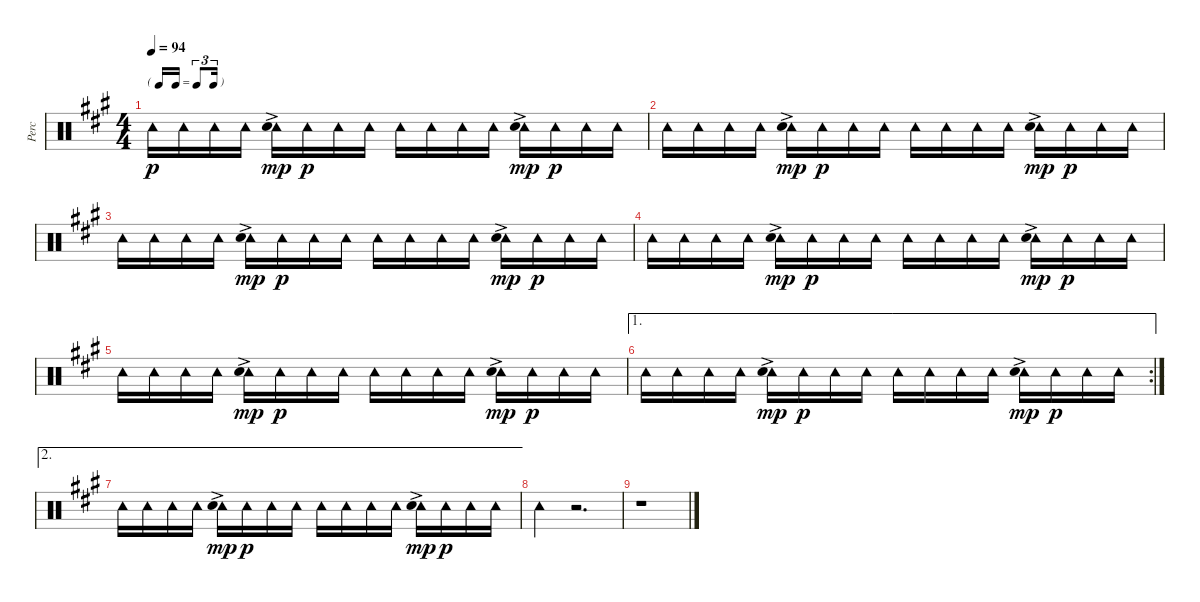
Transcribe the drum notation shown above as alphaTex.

\track ("Perc" "Perc") {instrument percussion}
\staff {score}
\articulation defaults
\ts (4 4)
\tf triplet16th
\tempo 94
\clef neutral
\ks a "Tambourine (hit)".16{dy p} "Tambourine (hit)".16 "Tambourine (hit)".16 "Tambourine (hit)".16
("Tambourine (hit)"{ac} "Hand Clap (hit)").16{dy mp} "Tambourine (hit)".16{dy p} "Tambourine (hit)".16 "Tambourine (hit)".16 "Tambourine (hit)".16 "Tambourine (hit)".16 "Tambourine (hit)".16 "Tambourine (hit)".16 ("Tambourine (hit)"{ac} "Hand Clap (hit)").16{dy mp} "Tambourine (hit)".16{dy p} "Tambourine (hit)".16 "Tambourine (hit)".16 |
"Tambourine (hit)".16 "Tambourine (hit)".16 "Tambourine (hit)".16 "Tambourine (hit)".16 ("Tambourine (hit)"{ac} "Hand Clap (hit)").16{dy mp} "Tambourine (hit)".16{dy p} "Tambourine (hit)".16 "Tambourine (hit)".16 "Tambourine (hit)".16 "Tambourine (hit)".16 "Tambourine (hit)".16 "Tambourine (hit)".16 ("Tambourine (hit)"{ac} "Hand Clap (hit)").16{dy mp} "Tambourine (hit)".16{dy p} "Tambourine (hit)".16 "Tambourine (hit)".16 |
"Tambourine (hit)".16 "Tambourine (hit)".16 "Tambourine (hit)".16 "Tambourine (hit)".16 ("Tambourine (hit)"{ac} "Hand Clap (hit)").16{dy mp} "Tambourine (hit)".16{dy p} "Tambourine (hit)".16 "Tambourine (hit)".16 "Tambourine (hit)".16 "Tambourine (hit)".16 "Tambourine (hit)".16 "Tambourine (hit)".16 ("Tambourine (hit)"{ac} "Hand Clap (hit)").16{dy mp} "Tambourine (hit)".16{dy p} "Tambourine (hit)".16 "Tambourine (hit)".16 |
"Tambourine (hit)".16 "Tambourine (hit)".16 "Tambourine (hit)".16 "Tambourine (hit)".16 ("Tambourine (hit)"{ac} "Hand Clap (hit)").16{dy mp} "Tambourine (hit)".16{dy p} "Tambourine (hit)".16 "Tambourine (hit)".16 "Tambourine (hit)".16 "Tambourine (hit)".16 "Tambourine (hit)".16 "Tambourine (hit)".16 ("Tambourine (hit)"{ac} "Hand Clap (hit)").16{dy mp} "Tambourine (hit)".16{dy p} "Tambourine (hit)".16 "Tambourine (hit)".16 |
"Tambourine (hit)".16 "Tambourine (hit)".16 "Tambourine (hit)".16 "Tambourine (hit)".16 ("Tambourine (hit)"{ac} "Hand Clap (hit)").16{dy mp} "Tambourine (hit)".16{dy p} "Tambourine (hit)".16 "Tambourine (hit)".16 "Tambourine (hit)".16 "Tambourine (hit)".16 "Tambourine (hit)".16 "Tambourine (hit)".16 ("Tambourine (hit)"{ac} "Hand Clap (hit)").16{dy mp} "Tambourine (hit)".16{dy p} "Tambourine (hit)".16 "Tambourine (hit)".16 |
\ae 1
\rc 2 "Tambourine (hit)".16 "Tambourine (hit)".16 "Tambourine (hit)".16 "Tambourine (hit)".16
("Tambourine (hit)"{ac} "Hand Clap (hit)").16{dy mp} "Tambourine (hit)".16{dy p} "Tambourine (hit)".16 "Tambourine (hit)".16 "Tambourine (hit)".16 "Tambourine (hit)".16 "Tambourine (hit)".16 "Tambourine (hit)".16 ("Tambourine (hit)"{ac} "Hand Clap (hit)").16{dy mp} "Tambourine (hit)".16{dy p} "Tambourine (hit)".16 "Tambourine (hit)".16 |
\ae 2 "Tambourine (hit)".16 "Tambourine (hit)".16 "Tambourine (hit)".16 "Tambourine (hit)".16
("Tambourine (hit)"{ac} "Hand Clap (hit)").16{dy mp} "Tambourine (hit)".16{dy p} "Tambourine (hit)".16 "Tambourine (hit)".16 "Tambourine (hit)".16 "Tambourine (hit)".16 "Tambourine (hit)".16 "Tambourine (hit)".16 ("Tambourine (hit)"{ac} "Hand Clap (hit)").16{dy mp} "Tambourine (hit)".16{dy p} "Tambourine (hit)".16 "Tambourine (hit)".16 |
"Tambourine (hit)".4 r.2{d} |
r.1
